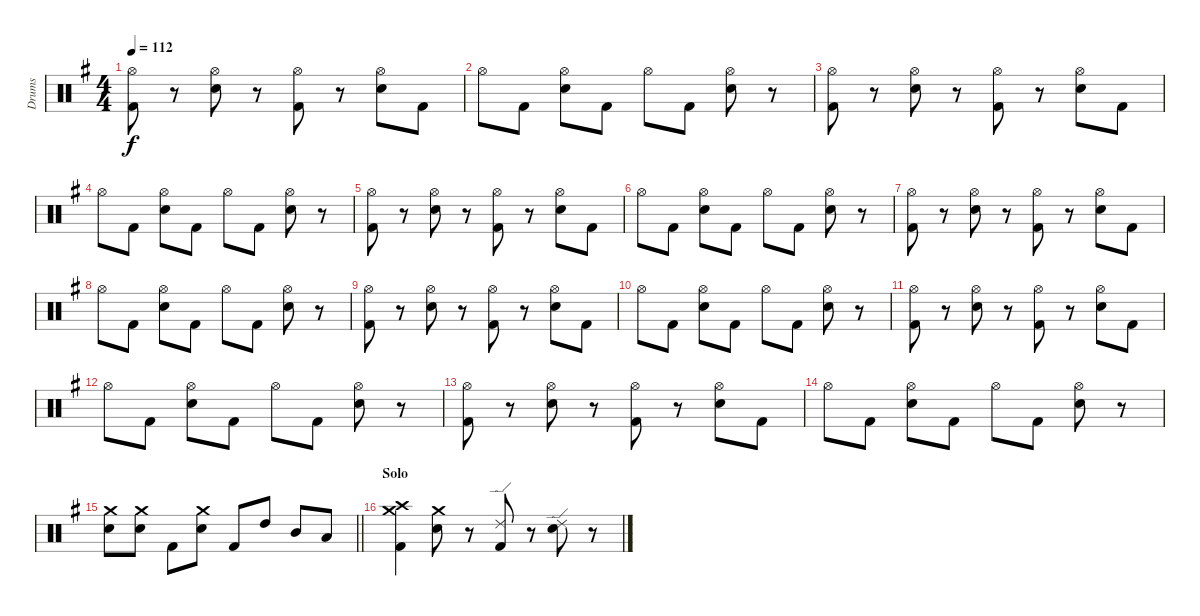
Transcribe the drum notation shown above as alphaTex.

\track ("Drums" "Drums") {instrument percussion}
\staff {score}
\articulation defaults
\ts (4 4)
\tempo 112
\clef neutral
\ks eminor
("Hi-Hat (open)" "Kick (hit) 2").8{dy f} r.8 ("Hi-Hat (open)" "Electric Snare (hit)").8 r.8 ("Hi-Hat (open)" "Kick (hit) 2").8 r.8 ("Hi-Hat (open)" "Electric Snare (hit)").8 "Kick (hit) 2".8 |
"Hi-Hat (open)".8 "Kick (hit) 2".8 ("Hi-Hat (open)" "Electric Snare (hit)").8 "Kick (hit) 2".8 "Hi-Hat (open)".8 "Kick (hit) 2".8 ("Hi-Hat (open)" "Electric Snare (hit)").8 r.8 |
("Hi-Hat (open)" "Kick (hit) 2").8 r.8 ("Hi-Hat (open)" "Electric Snare (hit)").8 r.8 ("Hi-Hat (open)" "Kick (hit) 2").8 r.8 ("Hi-Hat (open)" "Electric Snare (hit)").8 "Kick (hit) 2".8 |
"Hi-Hat (open)".8 "Kick (hit) 2".8 ("Hi-Hat (open)" "Electric Snare (hit)").8 "Kick (hit) 2".8 "Hi-Hat (open)".8 "Kick (hit) 2".8 ("Hi-Hat (open)" "Electric Snare (hit)").8 r.8 |
("Hi-Hat (open)" "Kick (hit) 2").8 r.8 ("Hi-Hat (open)" "Electric Snare (hit)").8 r.8 ("Hi-Hat (open)" "Kick (hit) 2").8 r.8 ("Hi-Hat (open)" "Electric Snare (hit)").8 "Kick (hit) 2".8 |
"Hi-Hat (open)".8 "Kick (hit) 2".8 ("Hi-Hat (open)" "Electric Snare (hit)").8 "Kick (hit) 2".8 "Hi-Hat (open)".8 "Kick (hit) 2".8 ("Hi-Hat (open)" "Electric Snare (hit)").8 r.8 |
("Hi-Hat (open)" "Kick (hit) 2").8 r.8 ("Hi-Hat (open)" "Electric Snare (hit)").8 r.8 ("Hi-Hat (open)" "Kick (hit) 2").8 r.8 ("Hi-Hat (open)" "Electric Snare (hit)").8 "Kick (hit) 2".8 |
"Hi-Hat (open)".8 "Kick (hit) 2".8 ("Hi-Hat (open)" "Electric Snare (hit)").8 "Kick (hit) 2".8 "Hi-Hat (open)".8 "Kick (hit) 2".8 ("Hi-Hat (open)" "Electric Snare (hit)").8 r.8 |
("Hi-Hat (open)" "Kick (hit) 2").8 r.8 ("Hi-Hat (open)" "Electric Snare (hit)").8 r.8 ("Hi-Hat (open)" "Kick (hit) 2").8 r.8 ("Hi-Hat (open)" "Electric Snare (hit)").8 "Kick (hit) 2".8 |
"Hi-Hat (open)".8 "Kick (hit) 2".8 ("Hi-Hat (open)" "Electric Snare (hit)").8 "Kick (hit) 2".8 "Hi-Hat (open)".8 "Kick (hit) 2".8 ("Hi-Hat (open)" "Electric Snare (hit)").8 r.8 |
("Hi-Hat (open)" "Kick (hit) 2").8 r.8 ("Hi-Hat (open)" "Electric Snare (hit)").8 r.8 ("Hi-Hat (open)" "Kick (hit) 2").8 r.8 ("Hi-Hat (open)" "Electric Snare (hit)").8 "Kick (hit) 2".8 |
"Hi-Hat (open)".8 "Kick (hit) 2".8 ("Hi-Hat (open)" "Electric Snare (hit)").8 "Kick (hit) 2".8 "Hi-Hat (open)".8 "Kick (hit) 2".8 ("Hi-Hat (open)" "Electric Snare (hit)").8 r.8 |
("Hi-Hat (open)" "Kick (hit) 2").8 r.8 ("Hi-Hat (open)" "Electric Snare (hit)").8 r.8 ("Hi-Hat (open)" "Kick (hit) 2").8 r.8 ("Hi-Hat (open)" "Electric Snare (hit)").8 "Kick (hit) 2".8 |
"Hi-Hat (open)".8 "Kick (hit) 2".8 ("Hi-Hat (open)" "Electric Snare (hit)").8 "Kick (hit) 2".8 "Hi-Hat (open)".8 "Kick (hit) 2".8 ("Hi-Hat (open)" "Electric Snare (hit)").8 r.8 |
\barLineRight lightlight
("Crash medium (hit)" "Electric Snare (hit)").8 ("Crash medium (hit)" "Electric Snare (hit)").8 "Kick (hit) 2".8 ("Crash medium (hit)" "Electric Snare (hit)").8 "Kick (hit) 2".8 "High Tom (hit)".8 "Mid Tom (hit)".8 "Low Tom (hit)".8 |
\section ("" "Solo")
("Crash high (hit)" "Crash medium (hit)" "Kick (hit) 2").4 ("Crash medium (hit)" "Electric Snare (hit)").8 r.8 ("Ride (edge) 2" "Kick (hit) 2").8 r.8 ("Ride (edge) 2" "Electric Snare (hit)").8 r.8
